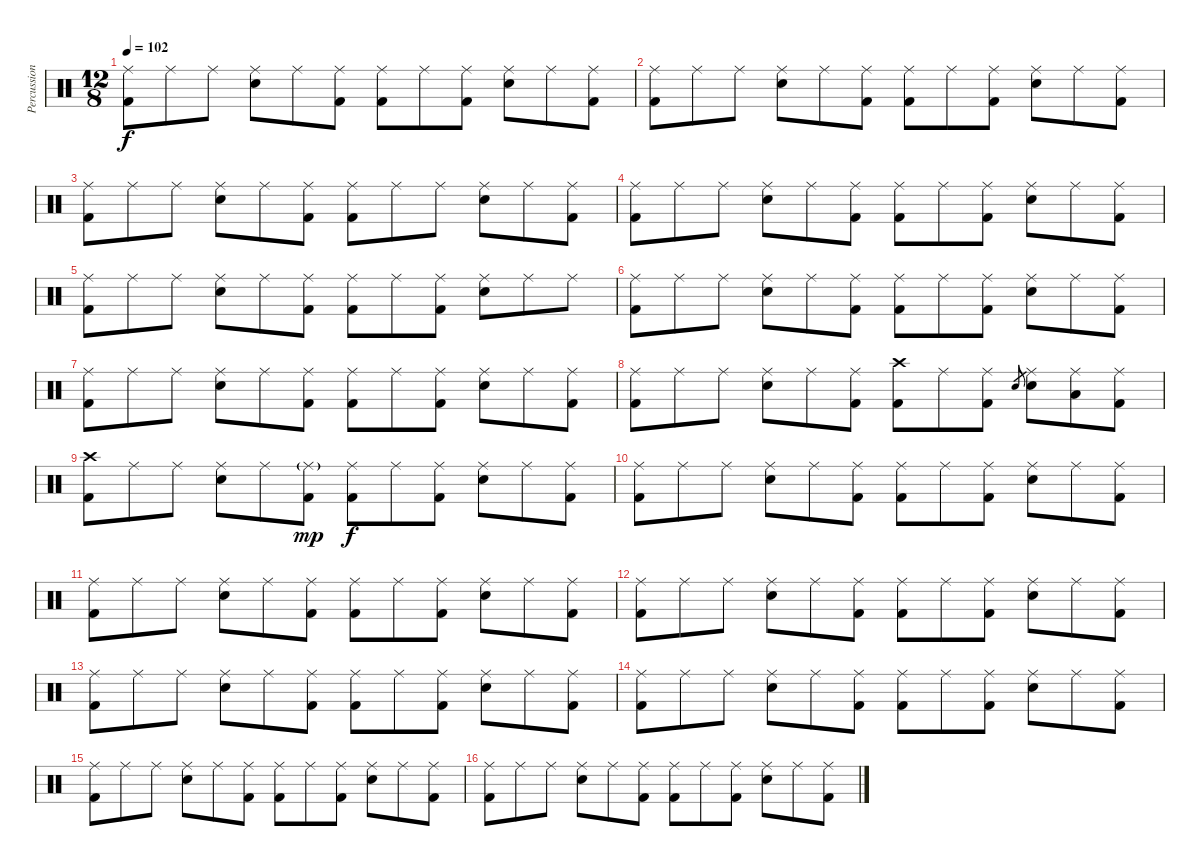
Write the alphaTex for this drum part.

\track ("Percussion" "Percussion") {instrument percussion}
\staff {score}
\articulation defaults
\ts (12 8)
\tempo 102
\clef neutral
\ks c
("Ride (middle)" "Kick (hit) 2").8{dy f} "Ride (middle)".8 "Ride (middle)".8 ("Ride (middle)" "Electric Snare (hit)").8 "Ride (middle)".8 ("Ride (middle)" "Kick (hit) 2").8 ("Ride (middle)" "Kick (hit) 2").8 "Ride (middle)".8 ("Ride (middle)" "Kick (hit) 2").8 ("Ride (middle)" "Electric Snare (hit)").8 "Ride (middle)".8 ("Ride (middle)" "Kick (hit) 2").8 |
("Ride (middle)" "Kick (hit) 2").8 "Ride (middle)".8 "Ride (middle)".8 ("Ride (middle)" "Electric Snare (hit)").8 "Ride (middle)".8 ("Ride (middle)" "Kick (hit) 2").8 ("Ride (middle)" "Kick (hit) 2").8 "Ride (middle)".8 ("Ride (middle)" "Kick (hit) 2").8 ("Ride (middle)" "Electric Snare (hit)").8 "Ride (middle)".8 ("Ride (middle)" "Kick (hit) 2").8 |
("Ride (middle)" "Kick (hit) 2").8 "Ride (middle)".8 "Ride (middle)".8 ("Ride (middle)" "Electric Snare (hit)").8 "Ride (middle)".8 ("Ride (middle)" "Kick (hit) 2").8 ("Ride (middle)" "Kick (hit) 2").8 "Ride (middle)".8 "Ride (middle)".8 ("Ride (middle)" "Electric Snare (hit)").8 "Ride (middle)".8 ("Ride (middle)" "Kick (hit) 2").8 |
("Ride (middle)" "Kick (hit) 2").8 "Ride (middle)".8 "Ride (middle)".8 ("Ride (middle)" "Electric Snare (hit)").8 "Ride (middle)".8 ("Ride (middle)" "Kick (hit) 2").8 ("Ride (middle)" "Kick (hit) 2").8 "Ride (middle)".8 ("Ride (middle)" "Kick (hit) 2").8 ("Ride (middle)" "Electric Snare (hit)").8 "Ride (middle)".8 ("Ride (middle)" "Kick (hit) 2").8 |
("Ride (middle)" "Kick (hit) 2").8 "Ride (middle)".8 "Ride (middle)".8 ("Ride (middle)" "Electric Snare (hit)").8 "Ride (middle)".8 ("Ride (middle)" "Kick (hit) 2").8 ("Ride (middle)" "Kick (hit) 2").8 "Ride (middle)".8 ("Ride (middle)" "Kick (hit) 2").8 ("Ride (middle)" "Electric Snare (hit)").8 "Ride (middle)".8 "Ride (middle)".8 |
("Ride (middle)" "Kick (hit) 2").8 "Ride (middle)".8 "Ride (middle)".8 ("Ride (middle)" "Electric Snare (hit)").8 "Ride (middle)".8 ("Ride (middle)" "Kick (hit) 2").8 ("Ride (middle)" "Kick (hit) 2").8 "Ride (middle)".8 ("Ride (middle)" "Kick (hit) 2").8 ("Ride (middle)" "Electric Snare (hit)").8 "Ride (middle)".8 ("Ride (middle)" "Kick (hit) 2").8 |
("Ride (middle)" "Kick (hit) 2").8 "Ride (middle)".8 "Ride (middle)".8 ("Ride (middle)" "Electric Snare (hit)").8 "Ride (middle)".8 ("Ride (middle)" "Kick (hit) 2").8 ("Ride (middle)" "Kick (hit) 2").8 "Ride (middle)".8 ("Ride (middle)" "Kick (hit) 2").8 ("Ride (middle)" "Electric Snare (hit)").8 "Ride (middle)".8 ("Ride (middle)" "Kick (hit) 2").8 |
("Ride (middle)" "Kick (hit) 2").8 "Ride (middle)".8 "Ride (middle)".8 ("Ride (middle)" "Electric Snare (hit)").8 "Ride (middle)".8 ("Ride (middle)" "Kick (hit) 2").8 ("Crash high (hit)" "Kick (hit) 2").8 "Ride (middle)".8 ("Ride (middle)" "Kick (hit) 2").8 "Electric Snare (hit)".8{gr} ("Ride (middle)" "Electric Snare (hit)").8 ("Ride (middle)" "Low Tom (hit)").8 ("Ride (middle)" "Kick (hit) 2").8 |
("Crash high (hit)" "Kick (hit) 2").8 "Ride (middle)".8 "Ride (middle)".8 ("Ride (middle)" "Electric Snare (hit)").8 "Ride (middle)".8 ("Ride (middle)"{g} "Kick (hit) 2").8{dy mp} ("Ride (middle)" "Kick (hit) 2").8{dy f} "Ride (middle)".8 ("Ride (middle)" "Kick (hit) 2").8 ("Ride (middle)" "Electric Snare (hit)").8 "Ride (middle)".8 ("Ride (middle)" "Kick (hit) 2").8 |
("Ride (middle)" "Kick (hit) 2").8 "Ride (middle)".8 "Ride (middle)".8 ("Ride (middle)" "Electric Snare (hit)").8 "Ride (middle)".8 ("Ride (middle)" "Kick (hit) 2").8 ("Ride (middle)" "Kick (hit) 2").8 "Ride (middle)".8 ("Ride (middle)" "Kick (hit) 2").8 ("Ride (middle)" "Electric Snare (hit)").8 "Ride (middle)".8 ("Ride (middle)" "Kick (hit) 2").8 |
("Ride (middle)" "Kick (hit) 2").8 "Ride (middle)".8 "Ride (middle)".8 ("Ride (middle)" "Electric Snare (hit)").8 "Ride (middle)".8 ("Ride (middle)" "Kick (hit) 2").8 ("Ride (middle)" "Kick (hit) 2").8 "Ride (middle)".8 ("Ride (middle)" "Kick (hit) 2").8 ("Ride (middle)" "Electric Snare (hit)").8 "Ride (middle)".8 ("Ride (middle)" "Kick (hit) 2").8 |
("Ride (middle)" "Kick (hit) 2").8 "Ride (middle)".8 "Ride (middle)".8 ("Ride (middle)" "Electric Snare (hit)").8 "Ride (middle)".8 ("Ride (middle)" "Kick (hit) 2").8 ("Ride (middle)" "Kick (hit) 2").8 "Ride (middle)".8 ("Ride (middle)" "Kick (hit) 2").8 ("Ride (middle)" "Electric Snare (hit)").8 "Ride (middle)".8 ("Ride (middle)" "Kick (hit) 2").8 |
("Ride (middle)" "Kick (hit) 2").8 "Ride (middle)".8 "Ride (middle)".8 ("Ride (middle)" "Electric Snare (hit)").8 "Ride (middle)".8 ("Ride (middle)" "Kick (hit) 2").8 ("Ride (middle)" "Kick (hit) 2").8 "Ride (middle)".8 ("Ride (middle)" "Kick (hit) 2").8 ("Ride (middle)" "Electric Snare (hit)").8 "Ride (middle)".8 ("Ride (middle)" "Kick (hit) 2").8 |
("Ride (middle)" "Kick (hit) 2").8 "Ride (middle)".8 "Ride (middle)".8 ("Ride (middle)" "Electric Snare (hit)").8 "Ride (middle)".8 ("Ride (middle)" "Kick (hit) 2").8 ("Ride (middle)" "Kick (hit) 2").8 "Ride (middle)".8 ("Ride (middle)" "Kick (hit) 2").8 ("Ride (middle)" "Electric Snare (hit)").8 "Ride (middle)".8 ("Ride (middle)" "Kick (hit) 2").8 |
("Ride (middle)" "Kick (hit) 2").8 "Ride (middle)".8 "Ride (middle)".8 ("Ride (middle)" "Electric Snare (hit)").8 "Ride (middle)".8 ("Ride (middle)" "Kick (hit) 2").8 ("Ride (middle)" "Kick (hit) 2").8 "Ride (middle)".8 ("Ride (middle)" "Kick (hit) 2").8 ("Ride (middle)" "Electric Snare (hit)").8 "Ride (middle)".8 ("Ride (middle)" "Kick (hit) 2").8 |
("Ride (middle)" "Kick (hit) 2").8 "Ride (middle)".8 "Ride (middle)".8 ("Ride (middle)" "Electric Snare (hit)").8 "Ride (middle)".8 ("Ride (middle)" "Kick (hit) 2").8 ("Ride (middle)" "Kick (hit) 2").8 "Ride (middle)".8 ("Ride (middle)" "Kick (hit) 2").8 ("Ride (middle)" "Electric Snare (hit)").8 "Ride (middle)".8 ("Ride (middle)" "Kick (hit) 2").8
